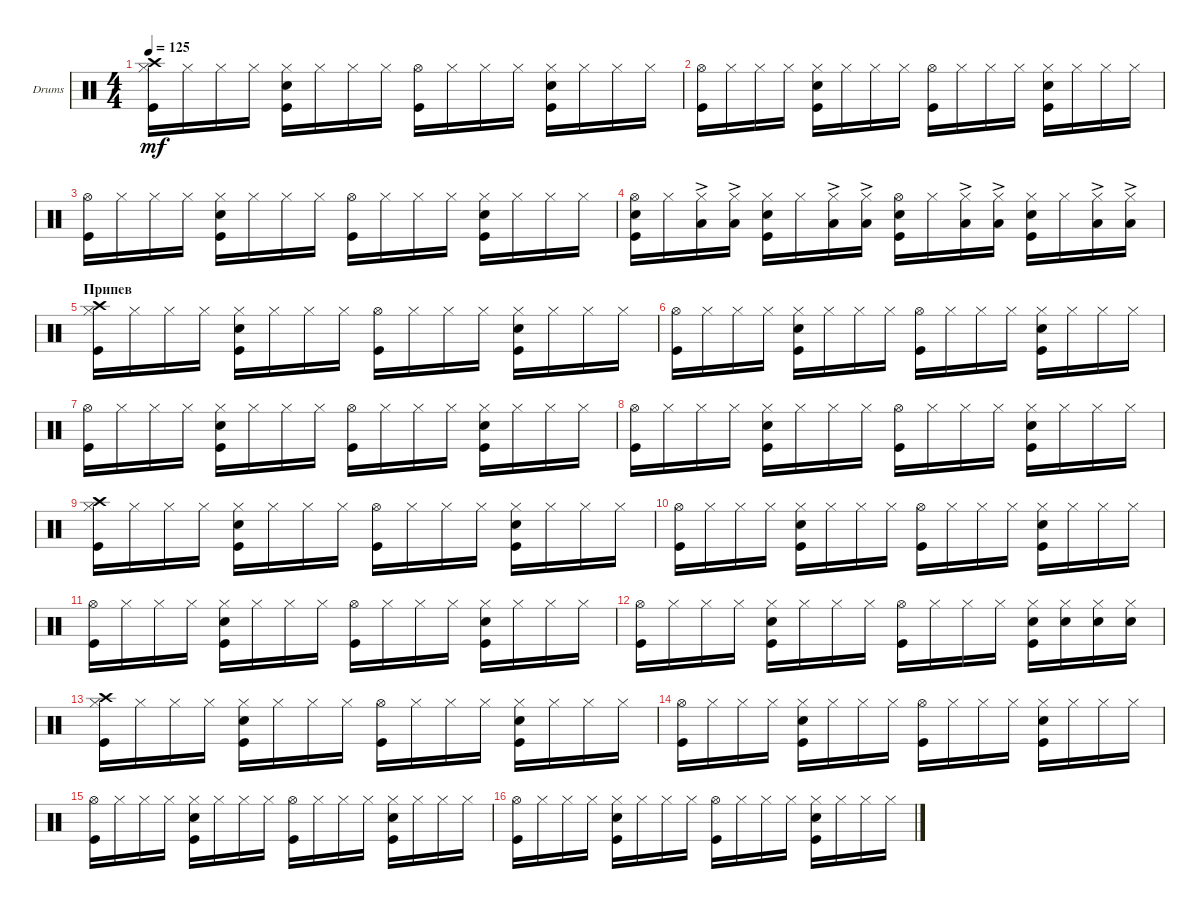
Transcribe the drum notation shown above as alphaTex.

\defaultSystemsLayout 4
\bracketExtendMode groupsimilarinstruments
\firstSystemTrackNameOrientation horizontal
\otherSystemsTrackNameOrientation horizontal
\track ("Drumkit" "Drums") {instrument percussion}
\staff {score}
\articulation defaults
\ts (4 4)
\tempo 125
\clef neutral
\ks c
("Hi-Hat (closed)" "Kick (hit)" "Crash high (hit)").16{dy mf} "Hi-Hat (closed)".16 "Hi-Hat (closed)".16 "Hi-Hat (closed)".16 ("Hi-Hat (closed)" "Kick (hit)" "Snare (hit) 2").16 "Hi-Hat (closed)".16 "Hi-Hat (closed)".16 "Hi-Hat (closed)".16 ("Hi-Hat (open)" "Kick (hit)").16 "Hi-Hat (closed)".16 "Hi-Hat (closed)".16 "Hi-Hat (closed)".16 ("Hi-Hat (closed)" "Kick (hit)" "Snare (hit) 2").16 "Hi-Hat (closed)".16 "Hi-Hat (closed)".16 "Hi-Hat (closed)".16 |
("Hi-Hat (open)" "Kick (hit)").16 "Hi-Hat (closed)".16 "Hi-Hat (closed)".16 "Hi-Hat (closed)".16 ("Hi-Hat (closed)" "Kick (hit)" "Snare (hit) 2").16 "Hi-Hat (closed)".16 "Hi-Hat (closed)".16 "Hi-Hat (closed)".16 ("Hi-Hat (open)" "Kick (hit)").16 "Hi-Hat (closed)".16 "Hi-Hat (closed)".16 "Hi-Hat (closed)".16 ("Hi-Hat (closed)" "Kick (hit)" "Snare (hit) 2").16 "Hi-Hat (closed)".16 "Hi-Hat (closed)".16 "Hi-Hat (closed)".16 |
("Hi-Hat (open)" "Kick (hit)").16 "Hi-Hat (closed)".16 "Hi-Hat (closed)".16 "Hi-Hat (closed)".16 ("Hi-Hat (closed)" "Kick (hit)" "Snare (hit) 2").16 "Hi-Hat (closed)".16 "Hi-Hat (closed)".16 "Hi-Hat (closed)".16 ("Hi-Hat (open)" "Kick (hit)").16 "Hi-Hat (closed)".16 "Hi-Hat (closed)".16 "Hi-Hat (closed)".16 ("Hi-Hat (closed)" "Kick (hit)" "Snare (hit) 2").16 "Hi-Hat (closed)".16 "Hi-Hat (closed)".16 "Hi-Hat (closed)".16 |
("Hi-Hat (open)" "Kick (hit)" "Snare (hit) 2").16 "Hi-Hat (closed)".16 ("Hi-Hat (closed)" "Low Tom (hit)"{ac}).16 ("Hi-Hat (closed)" "Low Tom (hit)"{ac}).16 ("Hi-Hat (closed)" "Kick (hit)" "Snare (hit) 2").16 "Hi-Hat (closed)".16 ("Hi-Hat (closed)" "Low Tom (hit)"{ac}).16 ("Hi-Hat (closed)" "Low Tom (hit)"{ac}).16 ("Hi-Hat (open)" "Kick (hit)" "Snare (hit) 2").16 "Hi-Hat (closed)".16 ("Hi-Hat (closed)" "Low Tom (hit)"{ac}).16 ("Hi-Hat (closed)" "Low Tom (hit)"{ac}).16 ("Hi-Hat (closed)" "Kick (hit)" "Snare (hit) 2").16 "Hi-Hat (closed)".16 ("Hi-Hat (closed)" "Low Tom (hit)"{ac}).16 ("Hi-Hat (closed)" "Low Tom (hit)"{ac}).16 |
\section ("" "Припев")
("Hi-Hat (closed)" "Kick (hit)" "Crash high (hit)").16 "Hi-Hat (closed)".16 "Hi-Hat (closed)".16 "Hi-Hat (closed)".16 ("Hi-Hat (closed)" "Kick (hit)" "Snare (hit) 2").16 "Hi-Hat (closed)".16 "Hi-Hat (closed)".16 "Hi-Hat (closed)".16 ("Hi-Hat (open)" "Kick (hit)").16 "Hi-Hat (closed)".16 "Hi-Hat (closed)".16 "Hi-Hat (closed)".16 ("Hi-Hat (closed)" "Kick (hit)" "Snare (hit) 2").16 "Hi-Hat (closed)".16 "Hi-Hat (closed)".16 "Hi-Hat (closed)".16 |
("Hi-Hat (open)" "Kick (hit)").16 "Hi-Hat (closed)".16 "Hi-Hat (closed)".16 "Hi-Hat (closed)".16 ("Hi-Hat (closed)" "Kick (hit)" "Snare (hit) 2").16 "Hi-Hat (closed)".16 "Hi-Hat (closed)".16 "Hi-Hat (closed)".16 ("Hi-Hat (open)" "Kick (hit)").16 "Hi-Hat (closed)".16 "Hi-Hat (closed)".16 "Hi-Hat (closed)".16 ("Hi-Hat (closed)" "Kick (hit)" "Snare (hit) 2").16 "Hi-Hat (closed)".16 "Hi-Hat (closed)".16 "Hi-Hat (closed)".16 |
("Hi-Hat (open)" "Kick (hit)").16 "Hi-Hat (closed)".16 "Hi-Hat (closed)".16 "Hi-Hat (closed)".16 ("Hi-Hat (closed)" "Kick (hit)" "Snare (hit) 2").16 "Hi-Hat (closed)".16 "Hi-Hat (closed)".16 "Hi-Hat (closed)".16 ("Hi-Hat (open)" "Kick (hit)").16 "Hi-Hat (closed)".16 "Hi-Hat (closed)".16 "Hi-Hat (closed)".16 ("Hi-Hat (closed)" "Kick (hit)" "Snare (hit) 2").16 "Hi-Hat (closed)".16 "Hi-Hat (closed)".16 "Hi-Hat (closed)".16 |
("Hi-Hat (open)" "Kick (hit)").16 "Hi-Hat (closed)".16 "Hi-Hat (closed)".16 "Hi-Hat (closed)".16 ("Hi-Hat (closed)" "Kick (hit)" "Snare (hit) 2").16 "Hi-Hat (closed)".16 "Hi-Hat (closed)".16 "Hi-Hat (closed)".16 ("Hi-Hat (open)" "Kick (hit)").16 "Hi-Hat (closed)".16 "Hi-Hat (closed)".16 "Hi-Hat (closed)".16 ("Hi-Hat (closed)" "Kick (hit)" "Snare (hit) 2").16 "Hi-Hat (closed)".16 "Hi-Hat (closed)".16 "Hi-Hat (closed)".16 |
("Hi-Hat (closed)" "Kick (hit)" "Crash high (hit)").16 "Hi-Hat (closed)".16 "Hi-Hat (closed)".16 "Hi-Hat (closed)".16 ("Hi-Hat (closed)" "Kick (hit)" "Snare (hit) 2").16 "Hi-Hat (closed)".16 "Hi-Hat (closed)".16 "Hi-Hat (closed)".16 ("Hi-Hat (open)" "Kick (hit)").16 "Hi-Hat (closed)".16 "Hi-Hat (closed)".16 "Hi-Hat (closed)".16 ("Hi-Hat (closed)" "Kick (hit)" "Snare (hit) 2").16 "Hi-Hat (closed)".16 "Hi-Hat (closed)".16 "Hi-Hat (closed)".16 |
("Hi-Hat (open)" "Kick (hit)").16 "Hi-Hat (closed)".16 "Hi-Hat (closed)".16 "Hi-Hat (closed)".16 ("Hi-Hat (closed)" "Kick (hit)" "Snare (hit) 2").16 "Hi-Hat (closed)".16 "Hi-Hat (closed)".16 "Hi-Hat (closed)".16 ("Hi-Hat (open)" "Kick (hit)").16 "Hi-Hat (closed)".16 "Hi-Hat (closed)".16 "Hi-Hat (closed)".16 ("Hi-Hat (closed)" "Kick (hit)" "Snare (hit) 2").16 "Hi-Hat (closed)".16 "Hi-Hat (closed)".16 "Hi-Hat (closed)".16 |
("Hi-Hat (open)" "Kick (hit)").16 "Hi-Hat (closed)".16 "Hi-Hat (closed)".16 "Hi-Hat (closed)".16 ("Hi-Hat (closed)" "Kick (hit)" "Snare (hit) 2").16 "Hi-Hat (closed)".16 "Hi-Hat (closed)".16 "Hi-Hat (closed)".16 ("Hi-Hat (open)" "Kick (hit)").16 "Hi-Hat (closed)".16 "Hi-Hat (closed)".16 "Hi-Hat (closed)".16 ("Hi-Hat (closed)" "Kick (hit)" "Snare (hit) 2").16 "Hi-Hat (closed)".16 "Hi-Hat (closed)".16 "Hi-Hat (closed)".16 |
("Hi-Hat (open)" "Kick (hit)").16 "Hi-Hat (closed)".16 "Hi-Hat (closed)".16 "Hi-Hat (closed)".16 ("Hi-Hat (closed)" "Kick (hit)" "Snare (hit) 2").16 "Hi-Hat (closed)".16 "Hi-Hat (closed)".16 "Hi-Hat (closed)".16 ("Hi-Hat (open)" "Kick (hit)").16 "Hi-Hat (closed)".16 "Hi-Hat (closed)".16 "Hi-Hat (closed)".16 ("Hi-Hat (closed)" "Kick (hit)" "Snare (hit) 2").16 ("Hi-Hat (closed)" "Snare (hit) 2").16 ("Hi-Hat (closed)" "Snare (hit) 2").16 ("Hi-Hat (closed)" "Snare (hit) 2").16 |
("Hi-Hat (closed)" "Kick (hit)" "Crash high (hit)").16 "Hi-Hat (closed)".16 "Hi-Hat (closed)".16 "Hi-Hat (closed)".16 ("Hi-Hat (closed)" "Kick (hit)" "Snare (hit) 2").16 "Hi-Hat (closed)".16 "Hi-Hat (closed)".16 "Hi-Hat (closed)".16 ("Hi-Hat (open)" "Kick (hit)").16 "Hi-Hat (closed)".16 "Hi-Hat (closed)".16 "Hi-Hat (closed)".16 ("Hi-Hat (closed)" "Kick (hit)" "Snare (hit) 2").16 "Hi-Hat (closed)".16 "Hi-Hat (closed)".16 "Hi-Hat (closed)".16 |
("Hi-Hat (open)" "Kick (hit)").16 "Hi-Hat (closed)".16 "Hi-Hat (closed)".16 "Hi-Hat (closed)".16 ("Hi-Hat (closed)" "Kick (hit)" "Snare (hit) 2").16 "Hi-Hat (closed)".16 "Hi-Hat (closed)".16 "Hi-Hat (closed)".16 ("Hi-Hat (open)" "Kick (hit)").16 "Hi-Hat (closed)".16 "Hi-Hat (closed)".16 "Hi-Hat (closed)".16 ("Hi-Hat (closed)" "Kick (hit)" "Snare (hit) 2").16 "Hi-Hat (closed)".16 "Hi-Hat (closed)".16 "Hi-Hat (closed)".16 |
("Hi-Hat (open)" "Kick (hit)").16 "Hi-Hat (closed)".16 "Hi-Hat (closed)".16 "Hi-Hat (closed)".16 ("Hi-Hat (closed)" "Kick (hit)" "Snare (hit) 2").16 "Hi-Hat (closed)".16 "Hi-Hat (closed)".16 "Hi-Hat (closed)".16 ("Hi-Hat (open)" "Kick (hit)").16 "Hi-Hat (closed)".16 "Hi-Hat (closed)".16 "Hi-Hat (closed)".16 ("Hi-Hat (closed)" "Kick (hit)" "Snare (hit) 2").16 "Hi-Hat (closed)".16 "Hi-Hat (closed)".16 "Hi-Hat (closed)".16 |
("Hi-Hat (open)" "Kick (hit)").16 "Hi-Hat (closed)".16 "Hi-Hat (closed)".16 "Hi-Hat (closed)".16 ("Hi-Hat (closed)" "Kick (hit)" "Snare (hit) 2").16 "Hi-Hat (closed)".16 "Hi-Hat (closed)".16 "Hi-Hat (closed)".16 ("Hi-Hat (open)" "Kick (hit)").16 "Hi-Hat (closed)".16 "Hi-Hat (closed)".16 "Hi-Hat (closed)".16 ("Hi-Hat (closed)" "Kick (hit)" "Snare (hit) 2").16 "Hi-Hat (closed)".16 "Hi-Hat (closed)".16 "Hi-Hat (closed)".16
